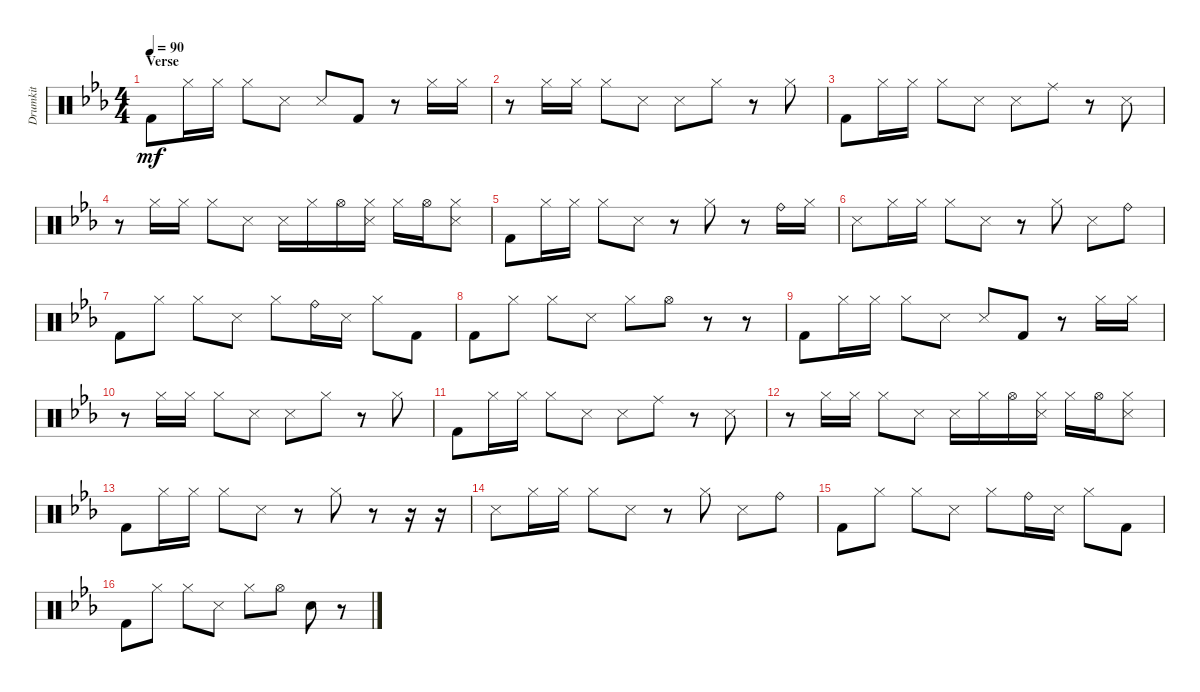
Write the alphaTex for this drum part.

\track ("Drumkit" "Drumkit") {instrument percussion}
\staff {score}
\articulation defaults
\ts (4 4)
\section ("" "Verse")
\tempo 90
\clef neutral
\ks cminor "Kick (hit) 2".8{dy mf} "Hi-Hat (closed)".16 "Hi-Hat (closed)".16 "Hi-Hat (closed)".8 "Snare (side stick) 3".8 "Snare (side stick) 3".8 "Kick (hit) 2".8
r.8 "Hi-Hat (closed)".16 "Hi-Hat (closed)".16 |
r.8 "Hi-Hat (closed)".16 "Hi-Hat (closed)".16 "Hi-Hat (closed)".8 "Snare (side stick) 3".8 "Snare (side stick) 3".8 "Hi-Hat (closed)".8 r.8 "Hi-Hat (closed)".8 |
"Kick (hit) 2".8 "Hi-Hat (closed)".16 "Hi-Hat (closed)".16 "Hi-Hat (closed)".8 "Snare (side stick) 3".8 "Snare (side stick) 3".8 "Ride (middle)".8 r.8 "Snare (side stick) 3".8 |
r.8 "Hi-Hat (closed)".16 "Hi-Hat (closed)".16 "Hi-Hat (closed)".8 "Snare (side stick) 3".8 "Snare (side stick) 3".16 "Hi-Hat (closed)".16 "Hi-Hat (open)".16 ("Hi-Hat (closed)" "Snare (side stick) 3").16 "Hi-Hat (closed)".16 "Hi-Hat (open)".16 ("Hi-Hat (closed)" "Snare (side stick) 3").8 |
"Kick (hit) 2".8 "Hi-Hat (closed)".16 "Hi-Hat (closed)".16 "Hi-Hat (closed)".8 "Snare (side stick) 3".8 r.8 "Hi-Hat (closed)".8 r.8 "Ride (bell)".16 "Hi-Hat (closed)".16 |
"Snare (side stick) 3".8 "Hi-Hat (closed)".16 "Hi-Hat (closed)".16 "Hi-Hat (closed)".8 "Snare (side stick) 3".8 r.8 "Hi-Hat (closed)".8 "Snare (side stick) 3".8 "Ride (bell)".8 |
"Kick (hit) 2".8 "Hi-Hat (closed)".8 "Hi-Hat (closed)".8 "Snare (side stick) 3".8 "Hi-Hat (closed)".8 "Ride (bell)".16 "Snare (side stick) 3".16 "Hi-Hat (closed)".8 "Kick (hit) 2".8 |
"Kick (hit) 2".8 "Hi-Hat (closed)".8 "Hi-Hat (closed)".8 "Snare (side stick) 3".8 "Hi-Hat (closed)".8 "Hi-Hat (open)".8 r.8 r.8 |
"Kick (hit) 2".8 "Hi-Hat (closed)".16 "Hi-Hat (closed)".16 "Hi-Hat (closed)".8 "Snare (side stick) 3".8 "Snare (side stick) 3".8 "Kick (hit) 2".8 r.8 "Hi-Hat (closed)".16 "Hi-Hat (closed)".16 |
r.8 "Hi-Hat (closed)".16 "Hi-Hat (closed)".16 "Hi-Hat (closed)".8 "Snare (side stick) 3".8 "Snare (side stick) 3".8 "Hi-Hat (closed)".8 r.8 "Hi-Hat (closed)".8 |
"Kick (hit) 2".8 "Hi-Hat (closed)".16 "Hi-Hat (closed)".16 "Hi-Hat (closed)".8 "Snare (side stick) 3".8 "Snare (side stick) 3".8 "Ride (middle)".8 r.8 "Snare (side stick) 3".8 |
r.8 "Hi-Hat (closed)".16 "Hi-Hat (closed)".16 "Hi-Hat (closed)".8 "Snare (side stick) 3".8 "Snare (side stick) 3".16 "Hi-Hat (closed)".16 "Hi-Hat (open)".16 ("Hi-Hat (closed)" "Snare (side stick) 3").16 "Hi-Hat (closed)".16 "Hi-Hat (open)".16 ("Hi-Hat (closed)" "Snare (side stick) 3").8 |
"Kick (hit) 2".8 "Hi-Hat (closed)".16 "Hi-Hat (closed)".16 "Hi-Hat (closed)".8 "Snare (side stick) 3".8 r.8 "Hi-Hat (closed)".8 r.8 r.16 r.16 |
"Snare (side stick) 3".8 "Hi-Hat (closed)".16 "Hi-Hat (closed)".16 "Hi-Hat (closed)".8 "Snare (side stick) 3".8 r.8 "Hi-Hat (closed)".8 "Snare (side stick) 3".8 "Ride (bell)".8 |
"Kick (hit) 2".8 "Hi-Hat (closed)".8 "Hi-Hat (closed)".8 "Snare (side stick) 3".8 "Hi-Hat (closed)".8 "Ride (bell)".16 "Snare (side stick) 3".16 "Hi-Hat (closed)".8 "Kick (hit) 2".8 |
"Kick (hit) 2".8 "Hi-Hat (closed)".8 "Hi-Hat (closed)".8 "Snare (side stick) 3".8 "Hi-Hat (closed)".8 "Hi-Hat (open)".8 "Snare (hit) 2".8 r.8
